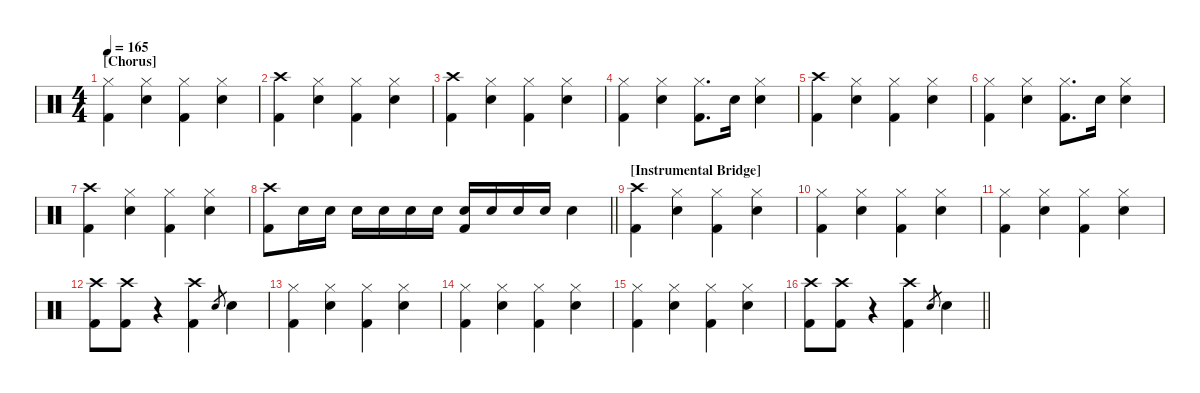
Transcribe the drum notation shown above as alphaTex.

\defaultSystemsLayout 4
\hideDynamics
\bracketExtendMode nobrackets
\singleTrackTrackNamePolicy hidden
\multiTrackTrackNamePolicy hidden
\firstSystemTrackNameMode fullname
\firstSystemTrackNameOrientation horizontal
\otherSystemsTrackNameOrientation horizontal
\track ("drums" "drm.") {instrument percussion}
\staff {score}
\articulation defaults
\ts (4 4)
\section ("" "[Chorus]")
\tempo 165
\clef neutral
\ks c
("Hi-Hat (closed)" "Kick (hit) 2").4{dy f beam Down} ("Hi-Hat (closed)" "Snare (hit) 2").4{beam Down} ("Hi-Hat (closed)" "Kick (hit) 2").4{beam Down} ("Hi-Hat (closed)" "Snare (hit) 2").4{beam Down} |
("Crash high (hit)" "Kick (hit) 2").4{dy fff beam Down} ("Hi-Hat (closed)" "Snare (hit) 2").4{dy f beam Down} ("Hi-Hat (closed)" "Kick (hit) 2").4{beam Down} ("Hi-Hat (closed)" "Snare (hit) 2").4{beam Down} |
("Crash high (hit)" "Kick (hit) 2").4{dy fff beam Down} ("Hi-Hat (closed)" "Snare (hit) 2").4{dy f beam Down} ("Hi-Hat (closed)" "Kick (hit) 2").4{beam Down} ("Hi-Hat (closed)" "Snare (hit) 2").4{beam Down} |
("Hi-Hat (closed)" "Kick (hit) 2").4{beam Down} ("Hi-Hat (closed)" "Snare (hit) 2").4{beam Down} ("Hi-Hat (closed)" "Kick (hit) 2").8{d beam Down} "Snare (hit) 2".16{beam Down} ("Hi-Hat (closed)" "Snare (hit) 2").4{beam Down} |
("Crash high (hit)" "Kick (hit) 2").4{dy fff beam Down} ("Hi-Hat (closed)" "Snare (hit) 2").4{dy f beam Down} ("Hi-Hat (closed)" "Kick (hit) 2").4{beam Down} ("Hi-Hat (closed)" "Snare (hit) 2").4{beam Down} |
("Hi-Hat (closed)" "Kick (hit) 2").4{beam Down} ("Hi-Hat (closed)" "Snare (hit) 2").4{beam Down} ("Hi-Hat (closed)" "Kick (hit) 2").8{d beam Down} "Snare (hit) 2".16{beam Down} ("Hi-Hat (closed)" "Snare (hit) 2").4{beam Down} |
("Crash high (hit)" "Kick (hit) 2").4{dy fff beam Down} ("Hi-Hat (closed)" "Snare (hit) 2").4{dy f beam Down} ("Hi-Hat (closed)" "Kick (hit) 2").4{beam Down} ("Hi-Hat (closed)" "Snare (hit) 2").4{beam Down} |
\barLineRight lightlight
("Crash high (hit)" "Kick (hit) 2").8{dy fff beam Down} "Snare (hit) 2".16{dy mp beam Down} "Snare (hit) 2".16{dy p beam Down} "Snare (hit) 2".16{dy mf beam Down} "Snare (hit) 2".16{dy mp beam Down} "Snare (hit) 2".16{dy mf beam Down} "Snare (hit) 2".16{dy mp beam Down} ("Snare (hit) 2" "Kick (hit) 2").16{dy f beam Up} "Snare (hit) 2".16{dy mf beam Up} "Snare (hit) 2".16{dy f beam Up} "Snare (hit) 2".16{dy mf beam Up} "Snare (hit) 2".4{dy ff beam Down} |
\section ("" "[Instrumental Bridge]")
("Crash high (hit)" "Kick (hit) 2").4{dy fff beam Down} ("Hi-Hat (closed)" "Snare (hit) 2").4{dy f beam Down} ("Hi-Hat (closed)" "Kick (hit) 2").4{beam Down} ("Hi-Hat (closed)" "Snare (hit) 2").4{beam Down} |
("Hi-Hat (closed)" "Kick (hit) 2").4{beam Down} ("Hi-Hat (closed)" "Snare (hit) 2").4{beam Down} ("Hi-Hat (closed)" "Kick (hit) 2").4{beam Down} ("Hi-Hat (closed)" "Snare (hit) 2").4{beam Down} |
("Hi-Hat (closed)" "Kick (hit) 2").4{beam Down} ("Hi-Hat (closed)" "Snare (hit) 2").4{beam Down} ("Hi-Hat (closed)" "Kick (hit) 2").4{beam Down} ("Hi-Hat (closed)" "Snare (hit) 2").4{beam Down} |
("Crash high (hit)" "Kick (hit) 2").8{dy fff beam Down} ("Crash high (hit)" "Kick (hit) 2").8{beam Down} r.4{beam Down} ("Crash high (hit)" "Kick (hit) 2").4{beam Down} "Snare (hit) 2".8{gr dy mf beam Up} "Snare (hit) 2".4{dy f beam Down} |
("Hi-Hat (closed)" "Kick (hit) 2").4{beam Down} ("Hi-Hat (closed)" "Snare (hit) 2").4{beam Down} ("Hi-Hat (closed)" "Kick (hit) 2").4{beam Down} ("Hi-Hat (closed)" "Snare (hit) 2").4{beam Down} |
("Hi-Hat (closed)" "Kick (hit) 2").4{beam Down} ("Hi-Hat (closed)" "Snare (hit) 2").4{beam Down} ("Hi-Hat (closed)" "Kick (hit) 2").4{beam Down} ("Hi-Hat (closed)" "Snare (hit) 2").4{beam Down} |
("Hi-Hat (closed)" "Kick (hit) 2").4{beam Down} ("Hi-Hat (closed)" "Snare (hit) 2").4{beam Down} ("Hi-Hat (closed)" "Kick (hit) 2").4{beam Down} ("Hi-Hat (closed)" "Snare (hit) 2").4{beam Down} |
\barLineRight lightlight
("Crash high (hit)" "Kick (hit) 2").8{dy fff beam Down} ("Crash high (hit)" "Kick (hit) 2").8{beam Down} r.4{beam Down} ("Crash high (hit)" "Kick (hit) 2").4{beam Down} "Snare (hit) 2".8{gr dy mf beam Up} "Snare (hit) 2".4{dy f beam Down}
